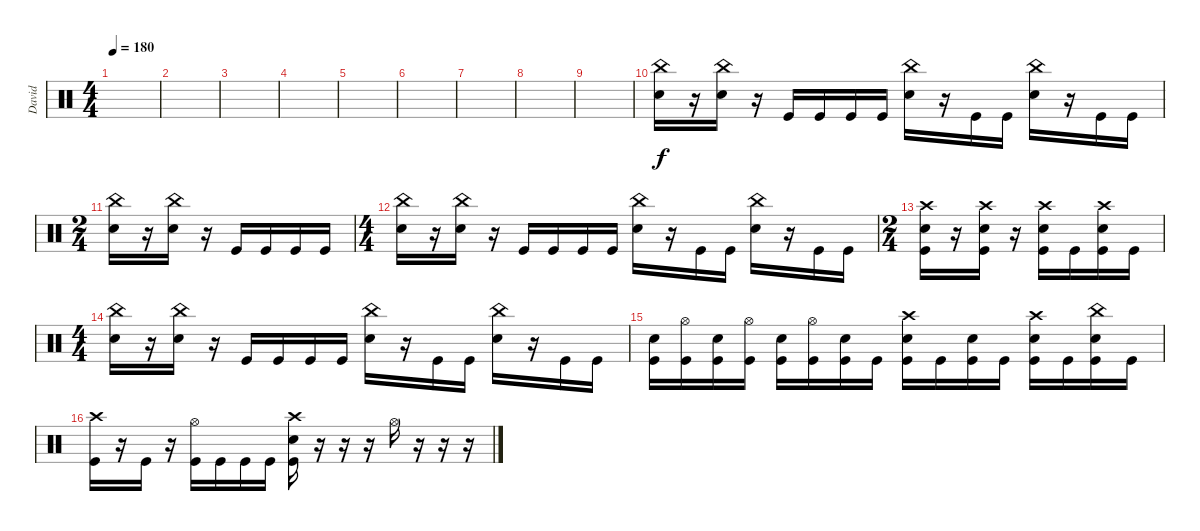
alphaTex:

\track ("David" "David") {instrument percussion}
\staff {score}
\articulation defaults
\ts (4 4)
\tempo 180
\clef neutral
\ks c
|
|
|
|
|
|
|
|
|
("China (hit)" "Electric Snare (hit)").16 r.16 ("China (hit)" "Electric Snare (hit)").16 r.16 "Kick (hit)".16 "Kick (hit)".16 "Kick (hit)".16 "Kick (hit)".16 ("China (hit)" "Electric Snare (hit)").16 r.16 "Kick (hit)".16 "Kick (hit)".16 ("China (hit)" "Electric Snare (hit)").16 r.16 "Kick (hit)".16 "Kick (hit)".16 |
\ts (2 4)
("China (hit)" "Electric Snare (hit)").16 r.16 ("China (hit)" "Electric Snare (hit)").16 r.16 "Kick (hit)".16 "Kick (hit)".16 "Kick (hit)".16 "Kick (hit)".16 |
\ts (4 4)
("China (hit)" "Electric Snare (hit)").16 r.16 ("China (hit)" "Electric Snare (hit)").16 r.16 "Kick (hit)".16 "Kick (hit)".16 "Kick (hit)".16 "Kick (hit)".16 ("China (hit)" "Electric Snare (hit)").16 r.16 "Kick (hit)".16 "Kick (hit)".16 ("China (hit)" "Electric Snare (hit)").16 r.16 "Kick (hit)".16 "Kick (hit)".16 |
\ts (2 4)
("Crash high (hit)" "Electric Snare (hit)" "Kick (hit)").16 r.16 ("Crash high (hit)" "Electric Snare (hit)" "Kick (hit)").16 r.16 ("Crash high (hit)" "Electric Snare (hit)" "Kick (hit)").16 "Kick (hit)".16 ("Crash high (hit)" "Electric Snare (hit)" "Kick (hit)").16 "Kick (hit)".16 |
\ts (4 4)
("China (hit)" "Electric Snare (hit)").16 r.16 ("China (hit)" "Electric Snare (hit)").16 r.16 "Kick (hit)".16 "Kick (hit)".16 "Kick (hit)".16 "Kick (hit)".16 ("China (hit)" "Electric Snare (hit)").16 r.16 "Kick (hit)".16 "Kick (hit)".16 ("China (hit)" "Electric Snare (hit)").16 r.16 "Kick (hit)".16 "Kick (hit)".16 |
("Electric Snare (hit)" "Kick (hit)").16 ("Hi-Hat (open)" "Kick (hit)").16 ("Electric Snare (hit)" "Kick (hit)").16 ("Hi-Hat (open)" "Kick (hit)").16 ("Electric Snare (hit)" "Kick (hit)").16 ("Hi-Hat (open)" "Kick (hit)").16 ("Electric Snare (hit)" "Kick (hit)").16 "Kick (hit)".16 ("Crash high (hit)" "Electric Snare (hit)" "Kick (hit)").16 "Kick (hit)".16 ("Electric Snare (hit)" "Kick (hit)").16 "Kick (hit)".16 ("Crash high (hit)" "Electric Snare (hit)" "Kick (hit)").16{beam merge} "Kick (hit)".16 ("China (hit)" "Electric Snare (hit)" "Kick (hit)").16 "Kick (hit)".16 |
("Crash high (hit)" "Kick (hit)").16 r.16 "Kick (hit)".16 r.16 ("Hi-Hat (open)" "Kick (hit)").16 "Kick (hit)".16 "Kick (hit)".16 "Kick (hit)".16 ("Crash high (hit)" "Electric Snare (hit)" "Kick (hit)").16 r.16 r.16 r.16 "Hi-Hat (open)".16 r.16 r.16 r.16
